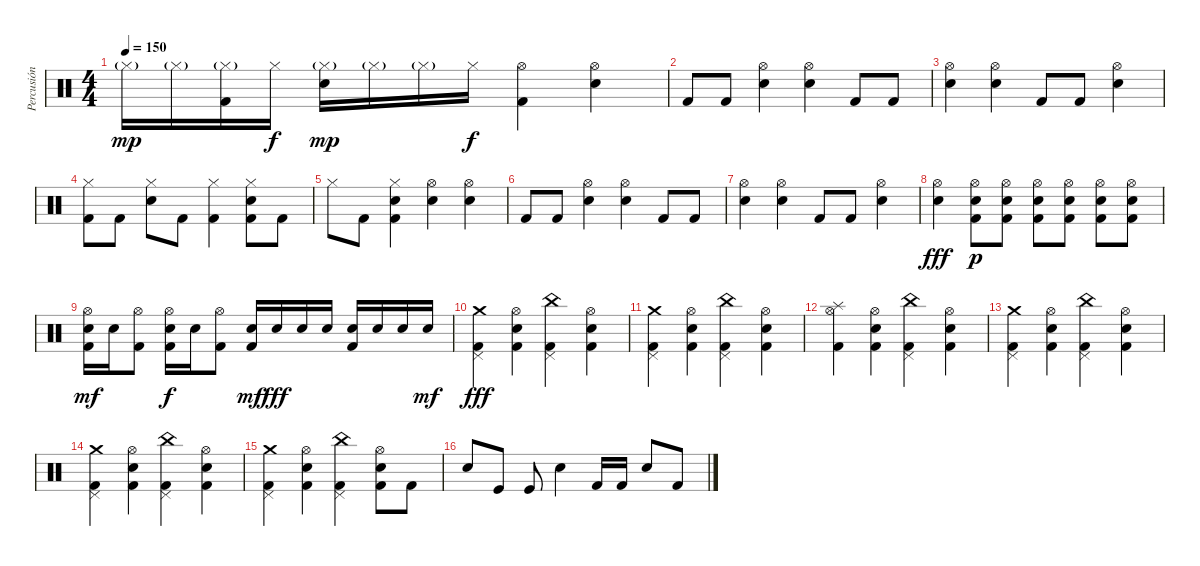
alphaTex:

\track ("Percusión" "Percusión") {instrument percussion}
\staff {score}
\articulation defaults
\ts (4 4)
\tempo 150
\clef neutral
\ks c "Hi-Hat (closed)"{g}.16{dy mp} "Hi-Hat (closed)"{g}.16
("Hi-Hat (closed)"{g} "Kick (hit) 2").16 "Hi-Hat (closed)".16{dy f} ("Hi-Hat (closed)"{g} "Electric Snare (hit)").16{dy mp} "Hi-Hat (closed)"{g}.16 "Hi-Hat (closed)"{g}.16 "Hi-Hat (closed)".16{dy f} ("Hi-Hat (open)" "Kick (hit) 2").4 ("Hi-Hat (open)" "Electric Snare (hit)").4 |
"Kick (hit) 2".8 "Kick (hit) 2".8 ("Hi-Hat (open)" "Electric Snare (hit)").4 ("Hi-Hat (open)" "Electric Snare (hit)").4 "Kick (hit) 2".8 "Kick (hit) 2".8 |
("Hi-Hat (open)" "Electric Snare (hit)").4 ("Hi-Hat (open)" "Electric Snare (hit)").4 "Kick (hit) 2".8 "Kick (hit) 2".8 ("Hi-Hat (open)" "Electric Snare (hit)").4 |
("Hi-Hat (closed)" "Kick (hit) 2").8 "Kick (hit) 2".8 ("Hi-Hat (closed)" "Electric Snare (hit)").8 "Kick (hit) 2".8 ("Hi-Hat (closed)" "Kick (hit) 2").4 ("Hi-Hat (closed)" "Kick (hit) 2" "Electric Snare (hit)").8 "Kick (hit) 2".8 |
"Hi-Hat (closed)".8 "Kick (hit) 2".8 ("Hi-Hat (closed)" "Kick (hit) 2" "Electric Snare (hit)").4 ("Hi-Hat (open)" "Electric Snare (hit)").4 ("Hi-Hat (open)" "Electric Snare (hit)").4 |
"Kick (hit) 2".8 "Kick (hit) 2".8 ("Hi-Hat (open)" "Electric Snare (hit)").4 ("Hi-Hat (open)" "Electric Snare (hit)").4 "Kick (hit) 2".8 "Kick (hit) 2".8 |
("Hi-Hat (open)" "Electric Snare (hit)").4 ("Hi-Hat (open)" "Electric Snare (hit)").4 "Kick (hit) 2".8 "Kick (hit) 2".8 ("Hi-Hat (open)" "Electric Snare (hit)").4 |
("Hi-Hat (open)" "Electric Snare (hit)").4{dy fff} ("Hi-Hat (open)" "Electric Snare (hit)" "Kick (hit) 2").8{dy p} ("Hi-Hat (open)" "Electric Snare (hit)" "Kick (hit) 2").8 ("Hi-Hat (open)" "Electric Snare (hit)" "Kick (hit) 2").8 ("Hi-Hat (open)" "Electric Snare (hit)" "Kick (hit) 2").8 ("Hi-Hat (open)" "Electric Snare (hit)" "Kick (hit) 2").8 ("Hi-Hat (open)" "Electric Snare (hit)" "Kick (hit) 2").8 |
("Hi-Hat (open)" "Electric Snare (hit)" "Kick (hit) 2").16{dy mf} "Electric Snare (hit)".16 ("Hi-Hat (open)" "Kick (hit) 2").8 ("Hi-Hat (open)" "Electric Snare (hit)" "Kick (hit) 2").16{dy f} "Electric Snare (hit)".16 ("Hi-Hat (open)" "Kick (hit) 2").8 ("Electric Snare (hit)" "Kick (hit) 2").16{dy mf} "Electric Snare (hit)".16{dy fff} "Electric Snare (hit)".16 "Electric Snare (hit)".16 ("Kick (hit) 2" "Electric Snare (hit)").16 "Electric Snare (hit)".16 "Electric Snare (hit)".16 "Electric Snare (hit)".16{dy mf} |
("Pedal Hi-Hat (hit)" "Kick (hit) 2" "Crash medium (hit)").4{dy fff} ("Hi-Hat (open)" "Kick (hit) 2" "Electric Snare (hit)").4 ("China (hit)" "Kick (hit) 2" "Pedal Hi-Hat (hit)").4 ("Hi-Hat (open)" "Kick (hit) 2" "Electric Snare (hit)").4 |
("Crash medium (hit)" "Kick (hit) 2" "Pedal Hi-Hat (hit)").4 ("Kick (hit) 2" "Electric Snare (hit)" "Hi-Hat (open)").4 ("China (hit)" "Kick (hit) 2" "Pedal Hi-Hat (hit)").4 ("Hi-Hat (open)" "Kick (hit) 2" "Electric Snare (hit)").4 |
("Hi-Hat (open)" "Kick (hit) 2" "Splash (hit)").4 ("Hi-Hat (open)" "Kick (hit) 2" "Electric Snare (hit)").4 ("China (hit)" "Kick (hit) 2" "Pedal Hi-Hat (hit)").4 ("Hi-Hat (open)" "Kick (hit) 2" "Electric Snare (hit)").4 |
("Crash medium (hit)" "Kick (hit) 2" "Pedal Hi-Hat (hit)").4 ("Hi-Hat (open)" "Kick (hit) 2" "Electric Snare (hit)").4 ("China (hit)" "Kick (hit) 2" "Pedal Hi-Hat (hit)").4 ("Hi-Hat (open)" "Kick (hit) 2" "Electric Snare (hit)").4 |
("Pedal Hi-Hat (hit)" "Kick (hit) 2" "Crash medium (hit)").4 ("Hi-Hat (open)" "Kick (hit) 2" "Electric Snare (hit)").4 ("China (hit)" "Kick (hit) 2" "Pedal Hi-Hat (hit)").4 ("Hi-Hat (open)" "Kick (hit) 2" "Electric Snare (hit)").4 |
("Crash medium (hit)" "Kick (hit) 2" "Pedal Hi-Hat (hit)").4 ("Hi-Hat (open)" "Kick (hit) 2" "Electric Snare (hit)").4 ("China (hit)" "Kick (hit) 2" "Pedal Hi-Hat (hit)").4 ("Hi-Hat (open)" "Kick (hit) 2" "Electric Snare (hit)").8 "Kick (hit) 2".8 |
"Electric Snare (hit)".8 "Kick (hit)".8 "Kick (hit)".8 "Electric Snare (hit)".4 "Kick (hit) 2".16 "Kick (hit) 2".16 "Electric Snare (hit)".8 "Kick (hit) 2".8
